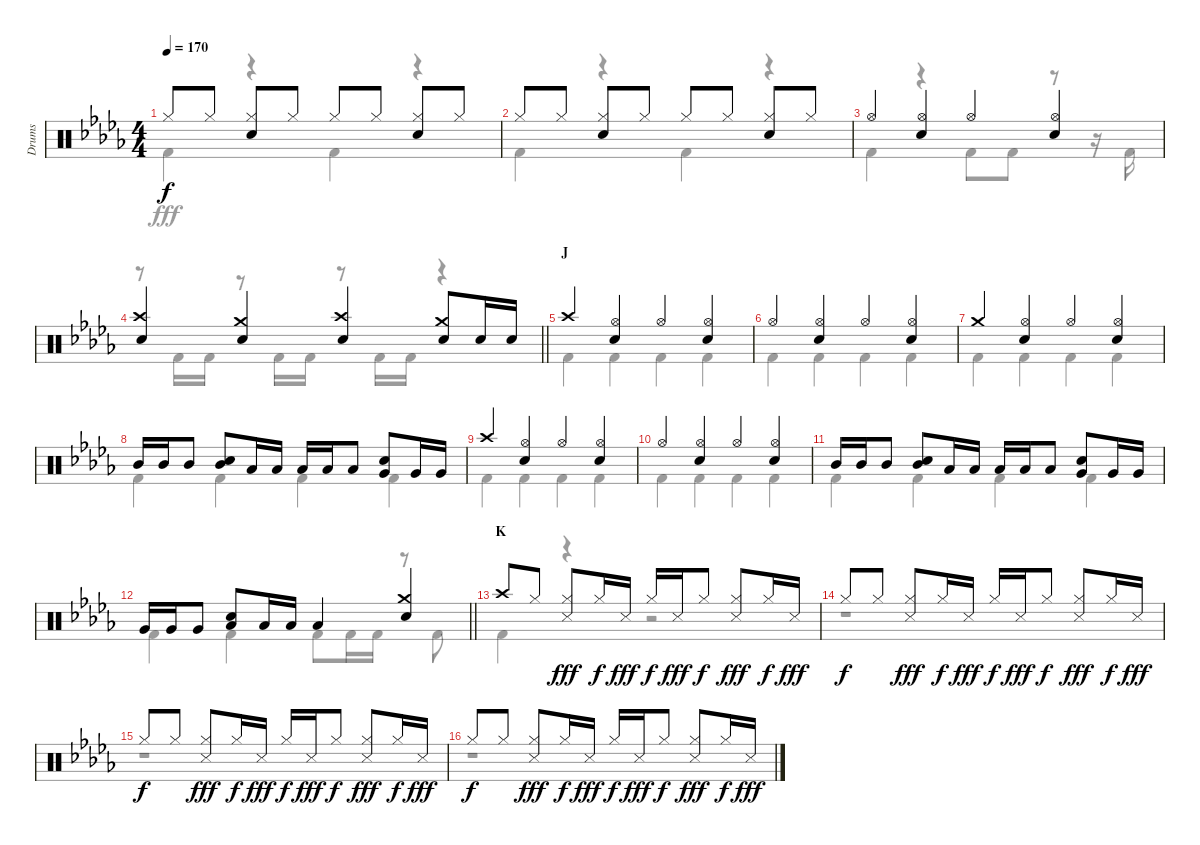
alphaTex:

\track ("Drums" "Drums") {instrument percussion}
\staff {score}
\articulation defaults
\voice
\ts (4 4)
\tempo 170
\clef neutral
\ks db "Hi-Hat (closed)".8{dy f} "Hi-Hat (closed)".8
("Hi-Hat (closed)" "Snare (hit) 2").8 "Hi-Hat (closed)".8 "Hi-Hat (closed)".8 "Hi-Hat (closed)".8 ("Hi-Hat (closed)" "Snare (hit) 2").8 "Hi-Hat (closed)".8 |
"Hi-Hat (closed)".8 "Hi-Hat (closed)".8 ("Hi-Hat (closed)" "Snare (hit) 2").8 "Hi-Hat (closed)".8 "Hi-Hat (closed)".8 "Hi-Hat (closed)".8 ("Hi-Hat (closed)" "Snare (hit) 2").8 "Hi-Hat (closed)".8 |
"Hi-Hat (open)".4 ("Hi-Hat (open)" "Snare (hit) 2").4 "Hi-Hat (open)".4 ("Hi-Hat (open)" "Snare (hit) 2").4 |
\barLineRight lightlight
("Crash high (hit)" "Snare (hit) 2").4 ("Crash medium (hit)" "Snare (hit) 2").4 ("Crash high (hit)" "Snare (hit) 2").4 ("Crash medium (hit)" "Snare (hit) 2").8 "Snare (hit) 2".16 "Snare (hit) 2".16 |
\section ("" "J")
"Crash high (hit)".4 ("Hi-Hat (open)" "Snare (hit) 2").4 "Hi-Hat (open)".4 ("Hi-Hat (open)" "Snare (hit) 2").4 |
"Hi-Hat (open)".4 ("Hi-Hat (open)" "Snare (hit) 2").4 "Hi-Hat (open)".4 ("Hi-Hat (open)" "Snare (hit) 2").4 |
"Crash medium (hit)".4 ("Hi-Hat (open)" "Snare (hit) 2").4 "Hi-Hat (open)".4 ("Hi-Hat (open)" "Snare (hit) 2").4 |
"Mid Tom (hit)".16 "Mid Tom (hit)".16 "Mid Tom (hit)".8 ("Mid Tom (hit)" "Snare (hit) 2").8 "Low Tom (hit)".16 "Low Tom (hit)".16 "Low Tom (hit)".16 "Low Tom (hit)".16 "Low Tom (hit)".8 ("Snare (hit) 2" "Very Low Tom (hit)").8 "Very Low Tom (hit)".16 "Very Low Tom (hit)".16 |
"Crash high (hit)".4 ("Hi-Hat (open)" "Snare (hit) 2").4 "Hi-Hat (open)".4 ("Hi-Hat (open)" "Snare (hit) 2").4 |
"Hi-Hat (open)".4 ("Hi-Hat (open)" "Snare (hit) 2").4 "Hi-Hat (open)".4 ("Hi-Hat (open)" "Snare (hit) 2").4 |
"Mid Tom (hit)".16 "Mid Tom (hit)".16 "Mid Tom (hit)".8 ("Mid Tom (hit)" "Snare (hit) 2").8 "Low Tom (hit)".16 "Low Tom (hit)".16 "Low Tom (hit)".16 "Low Tom (hit)".16 "Low Tom (hit)".8 ("Snare (hit) 2" "Very Low Tom (hit)").8 "Very Low Tom (hit)".16 "Very Low Tom (hit)".16 |
\barLineRight lightlight "Very Low Tom (hit)".16 "Very Low Tom (hit)".16 "Very Low Tom (hit)".8
("Snare (hit) 2" "Low Tom (hit)").8 "Low Tom (hit)".16 "Low Tom (hit)".16 "Low Tom (hit)".4 ("Crash medium (hit)" "Snare (hit) 2").4 |
\section ("" "K")
"Crash high (hit)".8 "Hi-Hat (closed)".8 ("Hi-Hat (closed)" "Snare (side stick) 3").8{dy fff} "Hi-Hat (closed)".16{dy f} "Snare (side stick) 3".16{dy fff} "Hi-Hat (closed)".16{dy f} "Snare (side stick) 3".16{dy fff} "Hi-Hat (closed)".8{dy f} ("Hi-Hat (closed)" "Snare (side stick) 3").8{dy fff} "Hi-Hat (closed)".16{dy f} "Snare (side stick) 3".16{dy fff} |
"Hi-Hat (closed)".8{dy f} "Hi-Hat (closed)".8 ("Hi-Hat (closed)" "Snare (side stick) 3").8{dy fff} "Hi-Hat (closed)".16{dy f} "Snare (side stick) 3".16{dy fff} "Hi-Hat (closed)".16{dy f} "Snare (side stick) 3".16{dy fff} "Hi-Hat (closed)".8{dy f} ("Hi-Hat (closed)" "Snare (side stick) 3").8{dy fff} "Hi-Hat (closed)".16{dy f} "Snare (side stick) 3".16{dy fff} |
"Hi-Hat (closed)".8{dy f} "Hi-Hat (closed)".8 ("Hi-Hat (closed)" "Snare (side stick) 3").8{dy fff} "Hi-Hat (closed)".16{dy f} "Snare (side stick) 3".16{dy fff} "Hi-Hat (closed)".16{dy f} "Snare (side stick) 3".16{dy fff} "Hi-Hat (closed)".8{dy f} ("Hi-Hat (closed)" "Snare (side stick) 3").8{dy fff} "Hi-Hat (closed)".16{dy f} "Snare (side stick) 3".16{dy fff} |
"Hi-Hat (closed)".8{dy f} "Hi-Hat (closed)".8 ("Hi-Hat (closed)" "Snare (side stick) 3").8{dy fff} "Hi-Hat (closed)".16{dy f} "Snare (side stick) 3".16{dy fff} "Hi-Hat (closed)".16{dy f} "Snare (side stick) 3".16{dy fff} "Hi-Hat (closed)".8{dy f} ("Hi-Hat (closed)" "Snare (side stick) 3").8{dy fff} "Hi-Hat (closed)".16{dy f} "Snare (side stick) 3".16{dy fff}
\voice
\clef neutral
\ottava regular
\simile none
\ks db "Kick (hit) 2".4{dy fff}
r.4 "Kick (hit) 2".4 r.4 |
"Kick (hit) 2".4 r.4 "Kick (hit) 2".4 r.4 |
"Kick (hit) 2".4 r.4 "Kick (hit) 2".8 "Kick (hit) 2".8 r.8 r.16 "Kick (hit) 2".16 |
\barLineRight lightlight
r.8 "Kick (hit) 2".16 "Kick (hit) 2".16 r.8 "Kick (hit) 2".16 "Kick (hit) 2".16 r.8 "Kick (hit) 2".16 "Kick (hit) 2".16 r.4 |
"Kick (hit) 2".4 "Kick (hit) 2".4 "Kick (hit) 2".4 "Kick (hit) 2".4 |
"Kick (hit) 2".4 "Kick (hit) 2".4 "Kick (hit) 2".4 "Kick (hit) 2".4 |
"Kick (hit) 2".4 "Kick (hit) 2".4 "Kick (hit) 2".4 "Kick (hit) 2".4 |
"Kick (hit) 2".4 "Kick (hit) 2".4 "Kick (hit) 2".4 "Kick (hit) 2".4 |
"Kick (hit) 2".4 "Kick (hit) 2".4 "Kick (hit) 2".4 "Kick (hit) 2".4 |
"Kick (hit) 2".4 "Kick (hit) 2".4 "Kick (hit) 2".4 "Kick (hit) 2".4 |
"Kick (hit) 2".4 "Kick (hit) 2".4 "Kick (hit) 2".4 "Kick (hit) 2".4 |
\barLineRight lightlight "Kick (hit) 2".4 "Kick (hit) 2".4 "Kick (hit) 2".8 "Kick (hit) 2".16 "Kick (hit) 2".16
r.8 "Kick (hit) 2".8 |
"Kick (hit) 2".4 r.4 r.2 |
r.1 |
r.1 |
r.1
